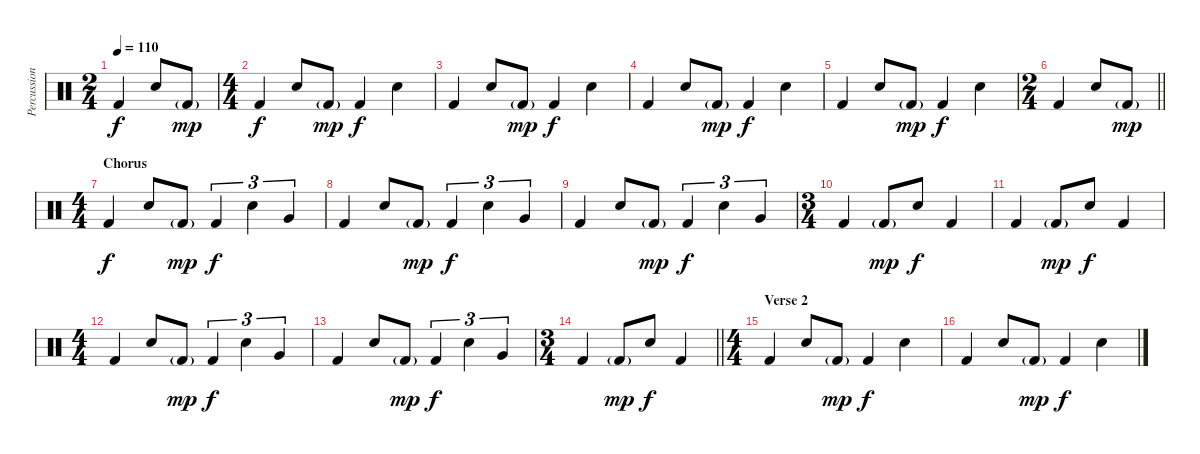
\track ("Percussion" "Percussion") {instrument percussion}
\staff {score}
\articulation defaults
\ts (2 4)
\tempo 110
\clef neutral
\ks c "Kick (hit) 2".4{dy f} "Snare (hit) 2".8 "Kick (hit) 2"{g}.8{dy mp}
|
\ts (4 4)
"Kick (hit) 2".4{dy f} "Snare (hit) 2".8 "Kick (hit) 2"{g}.8{dy mp} "Kick (hit) 2".4{dy f} "Snare (hit) 2".4 |
"Kick (hit) 2".4 "Snare (hit) 2".8 "Kick (hit) 2"{g}.8{dy mp} "Kick (hit) 2".4{dy f} "Snare (hit) 2".4 |
"Kick (hit) 2".4 "Snare (hit) 2".8 "Kick (hit) 2"{g}.8{dy mp} "Kick (hit) 2".4{dy f} "Snare (hit) 2".4 |
"Kick (hit) 2".4 "Snare (hit) 2".8 "Kick (hit) 2"{g}.8{dy mp} "Kick (hit) 2".4{dy f} "Snare (hit) 2".4 |
\ts (2 4)
\barLineRight lightlight "Kick (hit) 2".4 "Snare (hit) 2".8 "Kick (hit) 2"{g}.8{dy mp}
|
\ts (4 4)
\section ("" "Chorus")
"Kick (hit) 2".4{dy f} "Snare (hit) 2".8 "Kick (hit) 2"{g}.8{dy mp} "Kick (hit) 2".4{tu (3 2) dy f} "Snare (hit) 2".4{tu (3 2)} "Very Low Tom (hit)".4{tu (3 2)} |
"Kick (hit) 2".4 "Snare (hit) 2".8 "Kick (hit) 2"{g}.8{dy mp} "Kick (hit) 2".4{tu (3 2) dy f} "Snare (hit) 2".4{tu (3 2)} "Very Low Tom (hit)".4{tu (3 2)} |
"Kick (hit) 2".4 "Snare (hit) 2".8 "Kick (hit) 2"{g}.8{dy mp} "Kick (hit) 2".4{tu (3 2) dy f} "Snare (hit) 2".4{tu (3 2)} "Very Low Tom (hit)".4{tu (3 2)} |
\ts (3 4)
"Kick (hit) 2".4 "Kick (hit) 2"{g}.8{dy mp} "Snare (hit) 2".8{dy f} "Kick (hit) 2".4 |
"Kick (hit) 2".4 "Kick (hit) 2"{g}.8{dy mp} "Snare (hit) 2".8{dy f} "Kick (hit) 2".4 |
\ts (4 4)
"Kick (hit) 2".4 "Snare (hit) 2".8 "Kick (hit) 2"{g}.8{dy mp} "Kick (hit) 2".4{tu (3 2) dy f} "Snare (hit) 2".4{tu (3 2)} "Very Low Tom (hit)".4{tu (3 2)} |
"Kick (hit) 2".4 "Snare (hit) 2".8 "Kick (hit) 2"{g}.8{dy mp} "Kick (hit) 2".4{tu (3 2) dy f} "Snare (hit) 2".4{tu (3 2)} "Very Low Tom (hit)".4{tu (3 2)} |
\ts (3 4)
\barLineRight lightlight "Kick (hit) 2".4 "Kick (hit) 2"{g}.8{dy mp} "Snare (hit) 2".8{dy f} "Kick (hit) 2".4
|
\ts (4 4)
\section ("" "Verse 2")
"Kick (hit) 2".4 "Snare (hit) 2".8 "Kick (hit) 2"{g}.8{dy mp} "Kick (hit) 2".4{dy f} "Snare (hit) 2".4 |
"Kick (hit) 2".4 "Snare (hit) 2".8 "Kick (hit) 2"{g}.8{dy mp} "Kick (hit) 2".4{dy f} "Snare (hit) 2".4
